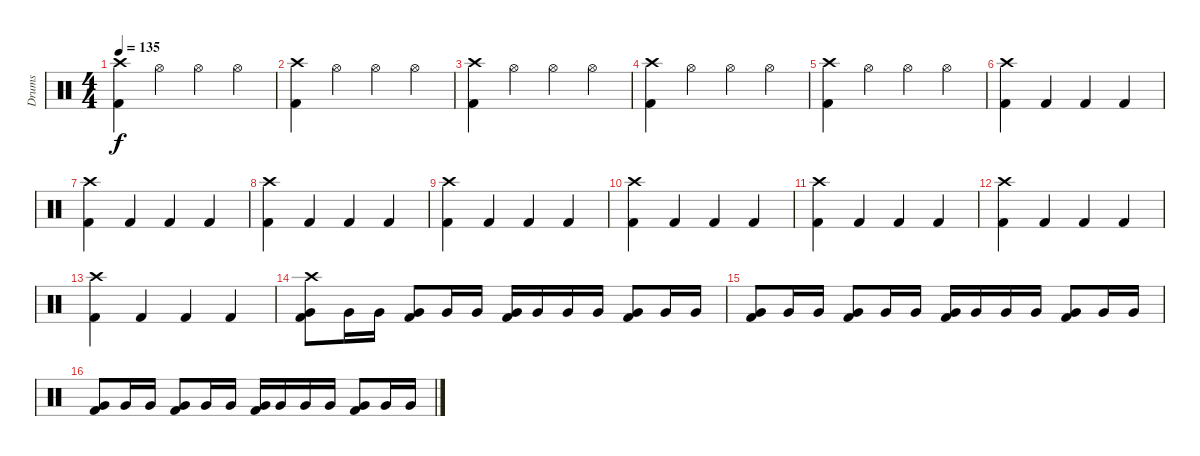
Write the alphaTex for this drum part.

\track ("Drums" "Drums") {instrument percussion}
\staff {score}
\articulation defaults
\ts (4 4)
\tempo 135
\clef neutral
\ks c
("Crash high (hit)" "Kick (hit) 2").4{dy f} "Hi-Hat (open)".4 "Hi-Hat (open)".4 "Hi-Hat (open)".4 |
("Crash high (hit)" "Kick (hit) 2").4 "Hi-Hat (open)".4 "Hi-Hat (open)".4 "Hi-Hat (open)".4 |
("Crash high (hit)" "Kick (hit) 2").4 "Hi-Hat (open)".4 "Hi-Hat (open)".4 "Hi-Hat (open)".4 |
("Crash high (hit)" "Kick (hit) 2").4 "Hi-Hat (open)".4 "Hi-Hat (open)".4 "Hi-Hat (open)".4 |
("Crash high (hit)" "Kick (hit) 2").4 "Hi-Hat (open)".4 "Hi-Hat (open)".4 "Hi-Hat (open)".4 |
("Crash high (hit)" "Kick (hit) 2").4 "Kick (hit) 2".4 "Kick (hit) 2".4 "Kick (hit) 2".4 |
("Crash high (hit)" "Kick (hit) 2").4 "Kick (hit) 2".4 "Kick (hit) 2".4 "Kick (hit) 2".4 |
("Crash high (hit)" "Kick (hit) 2").4 "Kick (hit) 2".4 "Kick (hit) 2".4 "Kick (hit) 2".4 |
("Crash high (hit)" "Kick (hit) 2").4 "Kick (hit) 2".4 "Kick (hit) 2".4 "Kick (hit) 2".4 |
("Crash high (hit)" "Kick (hit) 2").4 "Kick (hit) 2".4 "Kick (hit) 2".4 "Kick (hit) 2".4 |
("Crash high (hit)" "Kick (hit) 2").4 "Kick (hit) 2".4 "Kick (hit) 2".4 "Kick (hit) 2".4 |
("Crash high (hit)" "Kick (hit) 2").4 "Kick (hit) 2".4 "Kick (hit) 2".4 "Kick (hit) 2".4 |
("Crash high (hit)" "Kick (hit) 2").4 "Kick (hit) 2".4 "Kick (hit) 2".4 "Kick (hit) 2".4 |
("Crash high (hit)" "Very Low Tom (hit)" "Kick (hit) 2").8 "Very Low Tom (hit)".16 "Very Low Tom (hit)".16 ("Very Low Tom (hit)" "Kick (hit) 2").8 "Very Low Tom (hit)".16 "Very Low Tom (hit)".16 ("Very Low Tom (hit)" "Kick (hit) 2").16 "Very Low Tom (hit)".16 "Very Low Tom (hit)".16 "Very Low Tom (hit)".16 ("Very Low Tom (hit)" "Kick (hit) 2").8 "Very Low Tom (hit)".16 "Very Low Tom (hit)".16 |
("Very Low Tom (hit)" "Kick (hit) 2").8 "Very Low Tom (hit)".16 "Very Low Tom (hit)".16 ("Very Low Tom (hit)" "Kick (hit) 2").8 "Very Low Tom (hit)".16 "Very Low Tom (hit)".16 ("Very Low Tom (hit)" "Kick (hit) 2").16 "Very Low Tom (hit)".16 "Very Low Tom (hit)".16 "Very Low Tom (hit)".16 ("Very Low Tom (hit)" "Kick (hit) 2").8 "Very Low Tom (hit)".16 "Very Low Tom (hit)".16 |
("Very Low Tom (hit)" "Kick (hit) 2").8 "Very Low Tom (hit)".16 "Very Low Tom (hit)".16 ("Very Low Tom (hit)" "Kick (hit) 2").8 "Very Low Tom (hit)".16 "Very Low Tom (hit)".16 ("Very Low Tom (hit)" "Kick (hit) 2").16 "Very Low Tom (hit)".16 "Very Low Tom (hit)".16 "Very Low Tom (hit)".16 ("Very Low Tom (hit)" "Kick (hit) 2").8 "Very Low Tom (hit)".16 "Very Low Tom (hit)".16
